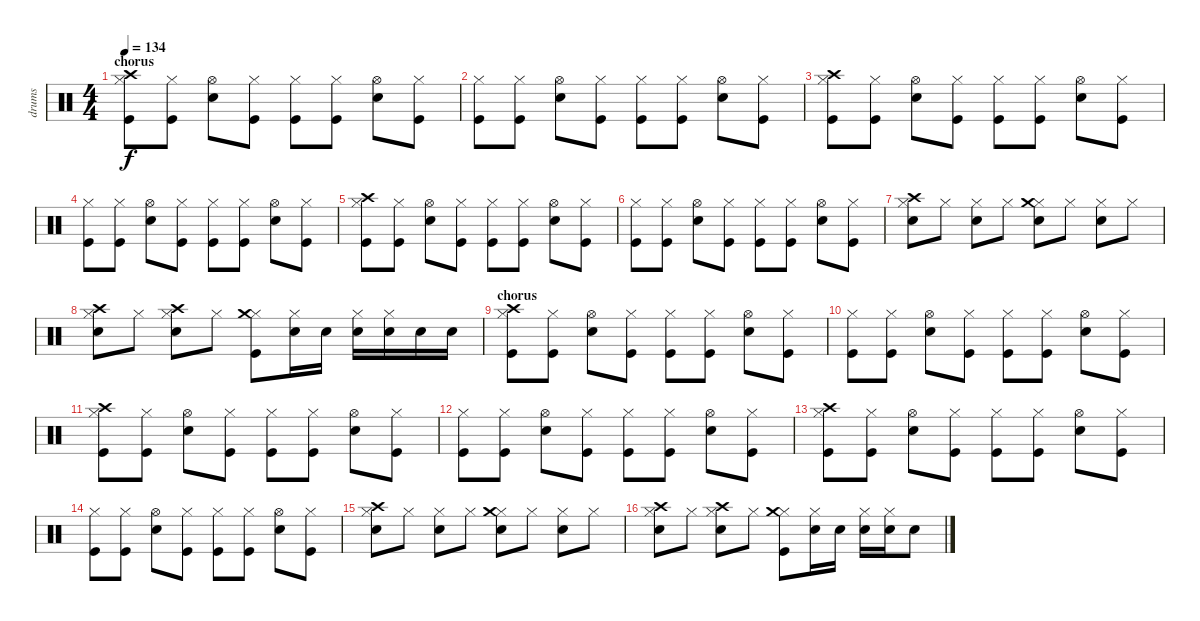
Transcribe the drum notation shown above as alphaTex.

\track ("drums" "drums") {instrument percussion}
\staff {score}
\articulation defaults
\ts (4 4)
\section ("" "chorus")
\tempo 134
\clef neutral
\ks c
("Kick (hit)" "Hi-Hat (closed)" "Crash high (hit)").8{dy f} ("Kick (hit)" "Hi-Hat (closed)").8 ("Electric Snare (hit)" "Hi-Hat (open)").8 ("Kick (hit)" "Hi-Hat (closed)").8 ("Kick (hit)" "Hi-Hat (closed)").8 ("Kick (hit)" "Hi-Hat (closed)").8 ("Electric Snare (hit)" "Hi-Hat (open)").8 ("Kick (hit)" "Hi-Hat (closed)").8 |
("Kick (hit)" "Hi-Hat (closed)").8 ("Kick (hit)" "Hi-Hat (closed)").8 ("Electric Snare (hit)" "Hi-Hat (open)").8 ("Kick (hit)" "Hi-Hat (closed)").8 ("Kick (hit)" "Hi-Hat (closed)").8 ("Kick (hit)" "Hi-Hat (closed)").8 ("Electric Snare (hit)" "Hi-Hat (open)").8 ("Kick (hit)" "Hi-Hat (closed)").8 |
("Kick (hit)" "Hi-Hat (closed)" "Crash high (hit)").8 ("Kick (hit)" "Hi-Hat (closed)").8 ("Electric Snare (hit)" "Hi-Hat (open)").8 ("Kick (hit)" "Hi-Hat (closed)").8 ("Kick (hit)" "Hi-Hat (closed)").8 ("Kick (hit)" "Hi-Hat (closed)").8 ("Electric Snare (hit)" "Hi-Hat (open)").8 ("Kick (hit)" "Hi-Hat (closed)").8 |
("Kick (hit)" "Hi-Hat (closed)").8 ("Kick (hit)" "Hi-Hat (closed)").8 ("Electric Snare (hit)" "Hi-Hat (open)").8 ("Kick (hit)" "Hi-Hat (closed)").8 ("Kick (hit)" "Hi-Hat (closed)").8 ("Kick (hit)" "Hi-Hat (closed)").8 ("Electric Snare (hit)" "Hi-Hat (open)").8 ("Kick (hit)" "Hi-Hat (closed)").8 |
("Kick (hit)" "Hi-Hat (closed)" "Crash high (hit)").8 ("Kick (hit)" "Hi-Hat (closed)").8 ("Electric Snare (hit)" "Hi-Hat (open)").8 ("Kick (hit)" "Hi-Hat (closed)").8 ("Kick (hit)" "Hi-Hat (closed)").8 ("Kick (hit)" "Hi-Hat (closed)").8 ("Electric Snare (hit)" "Hi-Hat (open)").8 ("Kick (hit)" "Hi-Hat (closed)").8 |
("Kick (hit)" "Hi-Hat (closed)").8 ("Kick (hit)" "Hi-Hat (closed)").8 ("Electric Snare (hit)" "Hi-Hat (open)").8 ("Kick (hit)" "Hi-Hat (closed)").8 ("Kick (hit)" "Hi-Hat (closed)").8 ("Kick (hit)" "Hi-Hat (closed)").8 ("Electric Snare (hit)" "Hi-Hat (open)").8 ("Kick (hit)" "Hi-Hat (closed)").8 |
("Electric Snare (hit)" "Hi-Hat (closed)" "Crash high (hit)").8 "Hi-Hat (closed)".8 ("Electric Snare (hit)" "Hi-Hat (closed)").8 "Hi-Hat (closed)".8 ("Electric Snare (hit)" "Hi-Hat (closed)" "Crash medium (hit)").8 "Hi-Hat (closed)".8 ("Electric Snare (hit)" "Hi-Hat (closed)").8 "Hi-Hat (closed)".8 |
("Electric Snare (hit)" "Hi-Hat (closed)" "Crash high (hit)").8 "Hi-Hat (closed)".8 ("Electric Snare (hit)" "Hi-Hat (closed)" "Crash high (hit)").8 "Hi-Hat (closed)".8 ("Kick (hit)" "Hi-Hat (closed)" "Crash medium (hit)").8 ("Electric Snare (hit)" "Hi-Hat (closed)").16 "Electric Snare (hit)".16 ("Electric Snare (hit)" "Hi-Hat (closed)").16 ("Electric Snare (hit)" "Hi-Hat (closed)").16 "Electric Snare (hit)".16 "Electric Snare (hit)".16 |
\section ("" "chorus")
("Kick (hit)" "Hi-Hat (closed)" "Crash high (hit)").8 ("Kick (hit)" "Hi-Hat (closed)").8 ("Electric Snare (hit)" "Hi-Hat (open)").8 ("Kick (hit)" "Hi-Hat (closed)").8 ("Kick (hit)" "Hi-Hat (closed)").8 ("Kick (hit)" "Hi-Hat (closed)").8 ("Electric Snare (hit)" "Hi-Hat (open)").8 ("Kick (hit)" "Hi-Hat (closed)").8 |
("Kick (hit)" "Hi-Hat (closed)").8 ("Kick (hit)" "Hi-Hat (closed)").8 ("Electric Snare (hit)" "Hi-Hat (open)").8 ("Kick (hit)" "Hi-Hat (closed)").8 ("Kick (hit)" "Hi-Hat (closed)").8 ("Kick (hit)" "Hi-Hat (closed)").8 ("Electric Snare (hit)" "Hi-Hat (open)").8 ("Kick (hit)" "Hi-Hat (closed)").8 |
("Kick (hit)" "Hi-Hat (closed)" "Crash high (hit)").8 ("Kick (hit)" "Hi-Hat (closed)").8 ("Electric Snare (hit)" "Hi-Hat (open)").8 ("Kick (hit)" "Hi-Hat (closed)").8 ("Kick (hit)" "Hi-Hat (closed)").8 ("Kick (hit)" "Hi-Hat (closed)").8 ("Electric Snare (hit)" "Hi-Hat (open)").8 ("Kick (hit)" "Hi-Hat (closed)").8 |
("Kick (hit)" "Hi-Hat (closed)").8 ("Kick (hit)" "Hi-Hat (closed)").8 ("Electric Snare (hit)" "Hi-Hat (open)").8 ("Kick (hit)" "Hi-Hat (closed)").8 ("Kick (hit)" "Hi-Hat (closed)").8 ("Kick (hit)" "Hi-Hat (closed)").8 ("Electric Snare (hit)" "Hi-Hat (open)").8 ("Kick (hit)" "Hi-Hat (closed)").8 |
("Kick (hit)" "Hi-Hat (closed)" "Crash high (hit)").8 ("Kick (hit)" "Hi-Hat (closed)").8 ("Electric Snare (hit)" "Hi-Hat (open)").8 ("Kick (hit)" "Hi-Hat (closed)").8 ("Kick (hit)" "Hi-Hat (closed)").8 ("Kick (hit)" "Hi-Hat (closed)").8 ("Electric Snare (hit)" "Hi-Hat (open)").8 ("Kick (hit)" "Hi-Hat (closed)").8 |
("Kick (hit)" "Hi-Hat (closed)").8 ("Kick (hit)" "Hi-Hat (closed)").8 ("Electric Snare (hit)" "Hi-Hat (open)").8 ("Kick (hit)" "Hi-Hat (closed)").8 ("Kick (hit)" "Hi-Hat (closed)").8 ("Kick (hit)" "Hi-Hat (closed)").8 ("Electric Snare (hit)" "Hi-Hat (open)").8 ("Kick (hit)" "Hi-Hat (closed)").8 |
("Electric Snare (hit)" "Hi-Hat (closed)" "Crash high (hit)").8 "Hi-Hat (closed)".8 ("Electric Snare (hit)" "Hi-Hat (closed)").8 "Hi-Hat (closed)".8 ("Electric Snare (hit)" "Hi-Hat (closed)" "Crash medium (hit)").8 "Hi-Hat (closed)".8 ("Electric Snare (hit)" "Hi-Hat (closed)").8 "Hi-Hat (closed)".8 |
("Electric Snare (hit)" "Hi-Hat (closed)" "Crash high (hit)").8 "Hi-Hat (closed)".8 ("Electric Snare (hit)" "Hi-Hat (closed)" "Crash high (hit)").8 "Hi-Hat (closed)".8 ("Kick (hit)" "Hi-Hat (closed)" "Crash medium (hit)").8 ("Electric Snare (hit)" "Hi-Hat (closed)").16 "Electric Snare (hit)".16 ("Electric Snare (hit)" "Hi-Hat (closed)").16 ("Electric Snare (hit)" "Hi-Hat (closed)").16 "Electric Snare (hit)".8
